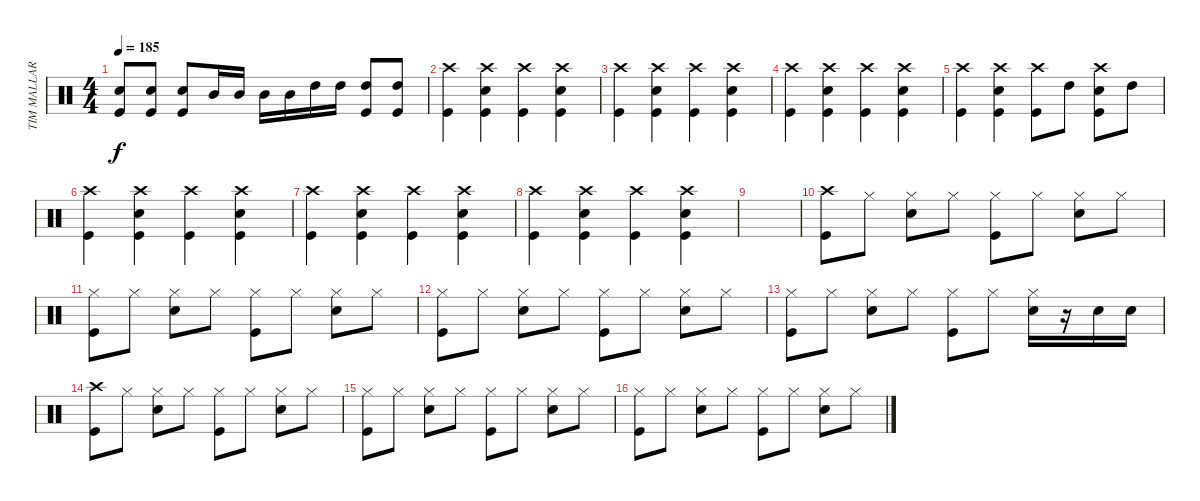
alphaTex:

\track ("TIM MALLARE - drums" "TIM MALLAR") {instrument percussion}
\staff {score}
\articulation defaults
\ts (4 4)
\tempo 185
\clef neutral
\ks c
("Electric Snare (hit)" "Kick (hit)").8{dy f} ("Electric Snare (hit)" "Kick (hit)").8 ("Electric Snare (hit)" "Kick (hit)").8 "Mid Tom (hit)".16 "Mid Tom (hit)".16 "Mid Tom (hit)".16 "Mid Tom (hit)".16 "High Tom (hit)".16 "High Tom (hit)".16 ("High Tom (hit)" "Kick (hit)").8 ("High Tom (hit)" "Kick (hit)").8 |
("Crash high (hit)" "Kick (hit)").4 ("Crash high (hit)" "Electric Snare (hit)" "Kick (hit)").4 ("Crash high (hit)" "Kick (hit)").4 ("Crash high (hit)" "Electric Snare (hit)" "Kick (hit)").4 |
("Crash high (hit)" "Kick (hit)").4 ("Electric Snare (hit)" "Crash high (hit)" "Kick (hit)").4 ("Crash high (hit)" "Kick (hit)").4 ("Electric Snare (hit)" "Crash high (hit)" "Kick (hit)").4 |
("Crash high (hit)" "Kick (hit)").4 ("Crash high (hit)" "Electric Snare (hit)" "Kick (hit)").4 ("Crash high (hit)" "Kick (hit)").4 ("Crash high (hit)" "Electric Snare (hit)" "Kick (hit)").4 |
("Crash high (hit)" "Kick (hit)").4 ("Electric Snare (hit)" "Crash high (hit)" "Kick (hit)").4 ("Crash high (hit)" "Kick (hit)").8 "High Tom (hit)".8 ("Electric Snare (hit)" "Crash high (hit)" "Kick (hit)").8 "High Tom (hit)".8 |
("Crash high (hit)" "Kick (hit)").4 ("Crash high (hit)" "Electric Snare (hit)" "Kick (hit)").4 ("Crash high (hit)" "Kick (hit)").4 ("Crash high (hit)" "Electric Snare (hit)" "Kick (hit)").4 |
("Crash high (hit)" "Kick (hit)").4 ("Electric Snare (hit)" "Crash high (hit)" "Kick (hit)").4 ("Crash high (hit)" "Kick (hit)").4 ("Electric Snare (hit)" "Crash high (hit)" "Kick (hit)").4 |
("Crash high (hit)" "Kick (hit)").4 ("Electric Snare (hit)" "Crash high (hit)" "Kick (hit)").4 ("Crash high (hit)" "Kick (hit)").4 ("Electric Snare (hit)" "Crash high (hit)" "Kick (hit)").4 |
|
("Crash high (hit)" "Kick (hit)").8 "Hi-Hat (closed)".8 ("Hi-Hat (closed)" "Electric Snare (hit)").8 "Hi-Hat (closed)".8 ("Hi-Hat (closed)" "Kick (hit)").8 "Hi-Hat (closed)".8 ("Hi-Hat (closed)" "Electric Snare (hit)").8 "Hi-Hat (closed)".8 |
("Hi-Hat (closed)" "Kick (hit)").8 "Hi-Hat (closed)".8 ("Hi-Hat (closed)" "Electric Snare (hit)").8 "Hi-Hat (closed)".8 ("Hi-Hat (closed)" "Kick (hit)").8 "Hi-Hat (closed)".8 ("Hi-Hat (closed)" "Electric Snare (hit)").8 "Hi-Hat (closed)".8 |
("Hi-Hat (closed)" "Kick (hit)").8 "Hi-Hat (closed)".8 ("Hi-Hat (closed)" "Electric Snare (hit)").8 "Hi-Hat (closed)".8 ("Hi-Hat (closed)" "Kick (hit)").8 "Hi-Hat (closed)".8 ("Hi-Hat (closed)" "Electric Snare (hit)").8 "Hi-Hat (closed)".8 |
("Hi-Hat (closed)" "Kick (hit)").8 "Hi-Hat (closed)".8 ("Hi-Hat (closed)" "Electric Snare (hit)").8 "Hi-Hat (closed)".8 ("Hi-Hat (closed)" "Kick (hit)").8 "Hi-Hat (closed)".8 ("Hi-Hat (closed)" "Electric Snare (hit)").16 r.16 "Electric Snare (hit)".16 "Electric Snare (hit)".16 |
("Crash high (hit)" "Kick (hit)").8 "Hi-Hat (closed)".8 ("Hi-Hat (closed)" "Electric Snare (hit)").8 "Hi-Hat (closed)".8 ("Hi-Hat (closed)" "Kick (hit)").8 "Hi-Hat (closed)".8 ("Hi-Hat (closed)" "Electric Snare (hit)").8 "Hi-Hat (closed)".8 |
("Hi-Hat (closed)" "Kick (hit)").8 "Hi-Hat (closed)".8 ("Hi-Hat (closed)" "Electric Snare (hit)").8 "Hi-Hat (closed)".8 ("Hi-Hat (closed)" "Kick (hit)").8 "Hi-Hat (closed)".8 ("Hi-Hat (closed)" "Electric Snare (hit)").8 "Hi-Hat (closed)".8 |
("Hi-Hat (closed)" "Kick (hit)").8 "Hi-Hat (closed)".8 ("Hi-Hat (closed)" "Electric Snare (hit)").8 "Hi-Hat (closed)".8 ("Hi-Hat (closed)" "Kick (hit)").8 "Hi-Hat (closed)".8 ("Hi-Hat (closed)" "Electric Snare (hit)").8 "Hi-Hat (closed)".8
